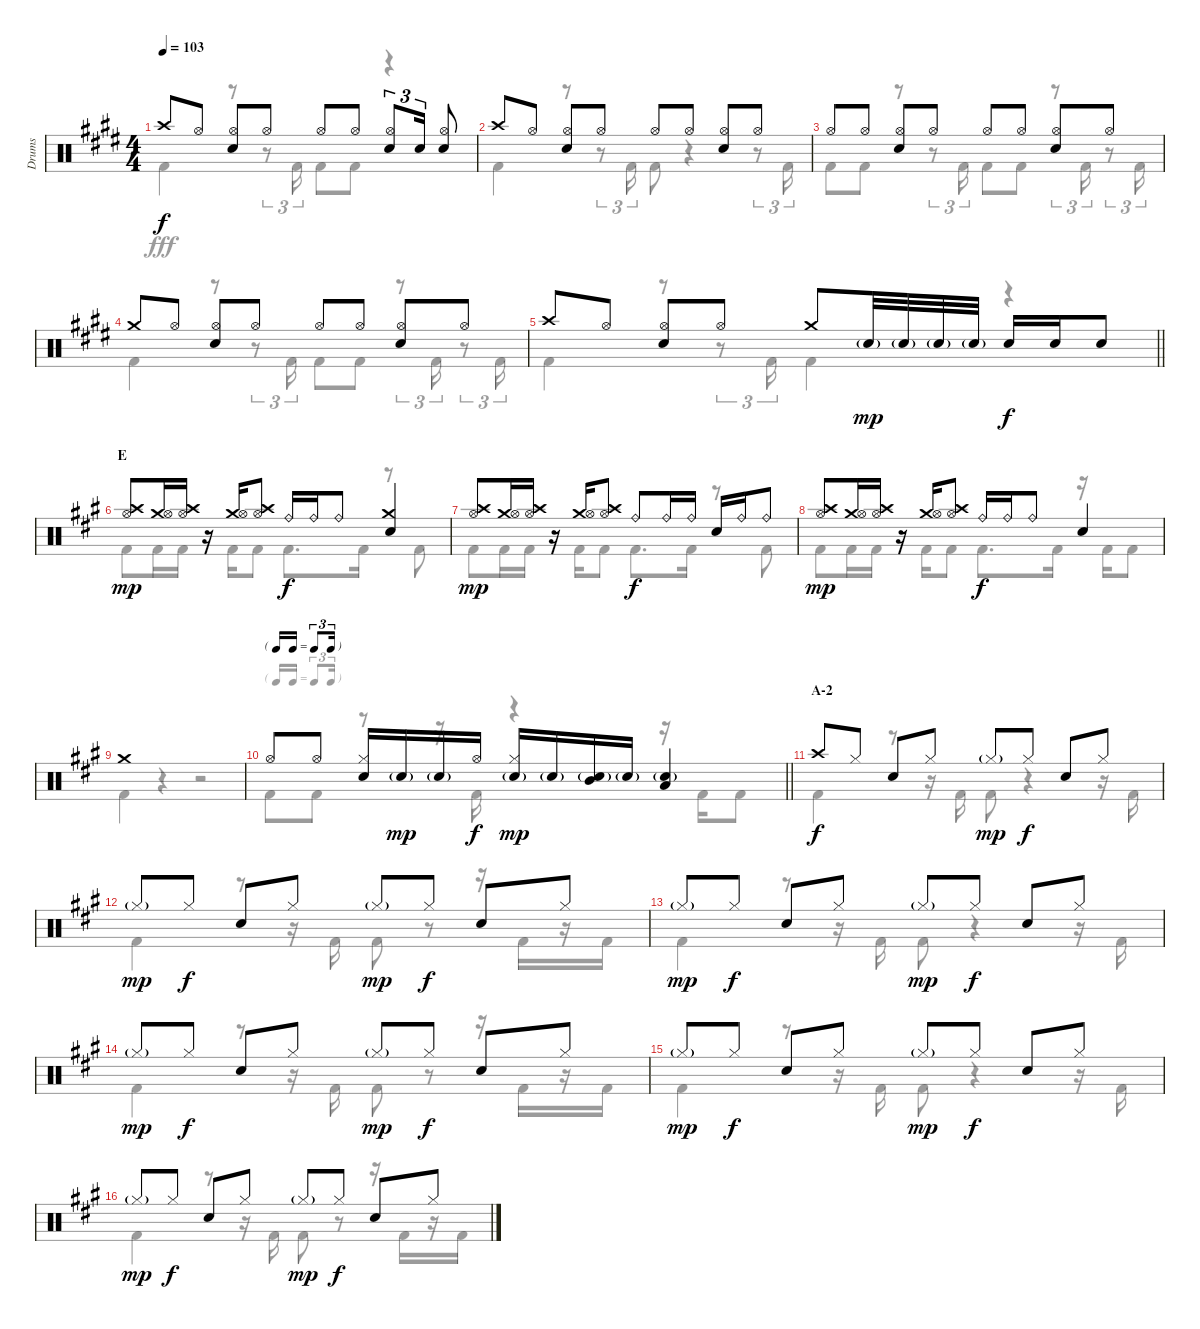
\track ("Drums" "Drums") {instrument percussion}
\staff {score}
\articulation defaults
\voice
\ts (4 4)
\tempo 103
\clef neutral
\ks e "Crash high (hit)".8{dy f} "Hi-Hat (open)".8
("Hi-Hat (open)" "Snare (hit) 2").8 "Hi-Hat (open)".8 "Hi-Hat (open)".8 "Hi-Hat (open)".8 ("Hi-Hat (open)" "Snare (hit) 2").8{tu (3 2)} "Snare (hit) 2".16{tu (3 2)} ("Hi-Hat (open)" "Snare (hit) 2").8 |
"Crash high (hit)".8 "Hi-Hat (open)".8 ("Hi-Hat (open)" "Snare (hit) 2").8 "Hi-Hat (open)".8 "Hi-Hat (open)".8 "Hi-Hat (open)".8 ("Hi-Hat (open)" "Snare (hit) 2").8 "Hi-Hat (open)".8 |
"Hi-Hat (open)".8 "Hi-Hat (open)".8 ("Hi-Hat (open)" "Snare (hit) 2").8 "Hi-Hat (open)".8 "Hi-Hat (open)".8 "Hi-Hat (open)".8 ("Hi-Hat (open)" "Snare (hit) 2").8 "Hi-Hat (open)".8 |
"Crash medium (hit)".8 "Hi-Hat (open)".8 ("Hi-Hat (open)" "Snare (hit) 2").8 "Hi-Hat (open)".8 "Hi-Hat (open)".8 "Hi-Hat (open)".8 ("Hi-Hat (open)" "Snare (hit) 2").8 "Hi-Hat (open)".8 |
\barLineRight lightlight "Crash high (hit)".8 "Hi-Hat (open)".8
("Hi-Hat (open)" "Snare (hit) 2").8 "Hi-Hat (open)".8 "Crash medium (hit)".8 "Snare (hit) 2"{g}.32{dy mp} "Snare (hit) 2"{g}.32 "Snare (hit) 2"{g}.32 "Snare (hit) 2"{g}.32 "Snare (hit) 2".16{dy f} "Snare (hit) 2".16 "Snare (hit) 2".8 |
\section ("" "E")
\ks a
("Crash high (hit)" "Hi-Hat (open)").8{dy mp} ("Crash medium (hit)" "Hi-Hat (open)").16 ("Crash high (hit)" "Hi-Hat (open)").16 r.16 ("Crash medium (hit)" "Hi-Hat (open)").16 ("Crash high (hit)" "Hi-Hat (open)").8 "Ride (bell)".16{dy f} "Ride (bell)".16 "Ride (bell)".8 ("Crash medium (hit)" "Snare (hit) 2").4 |
("Crash high (hit)" "Hi-Hat (open)").8{dy mp} ("Crash medium (hit)" "Hi-Hat (open)").16 ("Crash high (hit)" "Hi-Hat (open)").16 r.16 ("Crash medium (hit)" "Hi-Hat (open)").16 ("Crash high (hit)" "Hi-Hat (open)").8 "Ride (bell)".8{dy f} "Ride (bell)".16 "Ride (bell)".16 "Snare (hit) 2".16 "Ride (bell)".16 "Ride (bell)".8 |
("Crash high (hit)" "Hi-Hat (open)").8{dy mp} ("Crash medium (hit)" "Hi-Hat (open)").16 ("Crash high (hit)" "Hi-Hat (open)").16 r.16 ("Crash medium (hit)" "Hi-Hat (open)").16 ("Crash high (hit)" "Hi-Hat (open)").8 "Ride (bell)".16{dy f} "Ride (bell)".16 "Ride (bell)".8 "Snare (hit) 2".4 |
"Crash medium (hit)".1 |
\tf triplet16th
\barLineRight lightlight "Hi-Hat (open)".8 "Hi-Hat (open)".8
("Hi-Hat (closed)" "Snare (hit) 2").16 "Snare (hit) 2"{g}.16{dy mp} "Snare (hit) 2"{g}.16 "Hi-Hat (open)".16{dy f} ("Hi-Hat (closed)" "Snare (hit) 2"{g}).16{dy mp} "Snare (hit) 2"{g}.16 ("Mid Tom (hit)" "Snare (hit) 2"{g}).16 "Snare (hit) 2"{g}.16 ("Low Tom (hit)" "Snare (hit) 2"{g}).4 |
\section ("" "A-2")
"Crash high (hit)".8{dy f} "Hi-Hat (closed)".8 "Snare (hit) 2".8 "Hi-Hat (closed)".8 "Hi-Hat (closed)"{g}.8{dy mp} "Hi-Hat (closed)".8{dy f} "Snare (hit) 2".8 "Hi-Hat (closed)".8 |
"Hi-Hat (closed)"{g}.8{dy mp} "Hi-Hat (closed)".8{dy f} "Snare (hit) 2".8 "Hi-Hat (closed)".8 "Hi-Hat (closed)"{g}.8{dy mp} "Hi-Hat (closed)".8{dy f} "Snare (hit) 2".8 "Hi-Hat (closed)".8 |
"Hi-Hat (closed)"{g}.8{dy mp} "Hi-Hat (closed)".8{dy f} "Snare (hit) 2".8 "Hi-Hat (closed)".8 "Hi-Hat (closed)"{g}.8{dy mp} "Hi-Hat (closed)".8{dy f} "Snare (hit) 2".8 "Hi-Hat (closed)".8 |
"Hi-Hat (closed)"{g}.8{dy mp} "Hi-Hat (closed)".8{dy f} "Snare (hit) 2".8 "Hi-Hat (closed)".8 "Hi-Hat (closed)"{g}.8{dy mp} "Hi-Hat (closed)".8{dy f} "Snare (hit) 2".8 "Hi-Hat (closed)".8 |
"Hi-Hat (closed)"{g}.8{dy mp} "Hi-Hat (closed)".8{dy f} "Snare (hit) 2".8 "Hi-Hat (closed)".8 "Hi-Hat (closed)"{g}.8{dy mp} "Hi-Hat (closed)".8{dy f} "Snare (hit) 2".8 "Hi-Hat (closed)".8 |
"Hi-Hat (closed)"{g}.8{dy mp} "Hi-Hat (closed)".8{dy f} "Snare (hit) 2".8 "Hi-Hat (closed)".8 "Hi-Hat (closed)"{g}.8{dy mp} "Hi-Hat (closed)".8{dy f} "Snare (hit) 2".8 "Hi-Hat (closed)".8
\voice
\clef neutral
\ottava regular
\simile none
\ks e "Kick (hit) 2".4{dy fff}
r.8 r.8{tu (3 2)} "Kick (hit) 2".16{tu (3 2)} "Kick (hit) 2".8 "Kick (hit) 2".8 r.4 |
"Kick (hit) 2".4 r.8 r.8{tu (3 2)} "Kick (hit) 2".16{tu (3 2)} "Kick (hit) 2".8 r.4 r.8{tu (3 2)} "Kick (hit) 2".16{tu (3 2)} |
"Kick (hit) 2".8 "Kick (hit) 2".8 r.8 r.8{tu (3 2)} "Kick (hit) 2".16{tu (3 2)} "Kick (hit) 2".8 "Kick (hit) 2".8 r.8{tu (3 2)} "Kick (hit) 2".16{tu (3 2)} r.8{tu (3 2)} "Kick (hit) 2".16{tu (3 2)} |
"Kick (hit) 2".4 r.8 r.8{tu (3 2)} "Kick (hit) 2".16{tu (3 2)} "Kick (hit) 2".8 "Kick (hit) 2".8 r.8{tu (3 2)} "Kick (hit) 2".16{tu (3 2)} r.8{tu (3 2)} "Kick (hit) 2".16{tu (3 2)} |
\barLineRight lightlight "Kick (hit) 2".4
r.8 r.8{tu (3 2)} "Kick (hit) 2".16{tu (3 2)} "Kick (hit) 2".4 r.4 |
\ks a "Kick (hit) 2".8 "Kick (hit) 2".16 "Kick (hit) 2".16
r.16 "Kick (hit) 2".16 "Kick (hit) 2".8 "Kick (hit) 2".8{d} "Kick (hit) 2".16 r.8 "Kick (hit) 2".8 |
"Kick (hit) 2".8 "Kick (hit) 2".16 "Kick (hit) 2".16 r.16 "Kick (hit) 2".16 "Kick (hit) 2".8 "Kick (hit) 2".8{d} "Kick (hit) 2".16 r.8 "Kick (hit) 2".8 |
"Kick (hit) 2".8 "Kick (hit) 2".16 "Kick (hit) 2".16 r.16 "Kick (hit) 2".16 "Kick (hit) 2".8 "Kick (hit) 2".8{d} "Kick (hit) 2".16 r.16 "Kick (hit) 2".16 "Kick (hit) 2".8 |
"Kick (hit) 2".4 r.4 r.2 |
\barLineRight lightlight "Kick (hit) 2".8 "Kick (hit) 2".8
r.8 r.16 "Kick (hit) 2".16 r.4 r.16 "Kick (hit) 2".16 "Kick (hit) 2".8 |
"Kick (hit) 2".4 r.8 r.16 "Kick (hit) 2".16 "Kick (hit) 2".8 r.4 r.16 "Kick (hit) 2".16 |
"Kick (hit) 2".4 r.8 r.16 "Kick (hit) 2".16 "Kick (hit) 2".8 r.8 r.16 "Kick (hit) 2".16 r.16 "Kick (hit) 2".16 |
"Kick (hit) 2".4 r.8 r.16 "Kick (hit) 2".16 "Kick (hit) 2".8 r.4 r.16 "Kick (hit) 2".16 |
"Kick (hit) 2".4 r.8 r.16 "Kick (hit) 2".16 "Kick (hit) 2".8 r.8 r.16 "Kick (hit) 2".16 r.16 "Kick (hit) 2".16 |
"Kick (hit) 2".4 r.8 r.16 "Kick (hit) 2".16 "Kick (hit) 2".8 r.4 r.16 "Kick (hit) 2".16 |
"Kick (hit) 2".4 r.8 r.16 "Kick (hit) 2".16 "Kick (hit) 2".8 r.8 r.16 "Kick (hit) 2".16 r.16 "Kick (hit) 2".16
